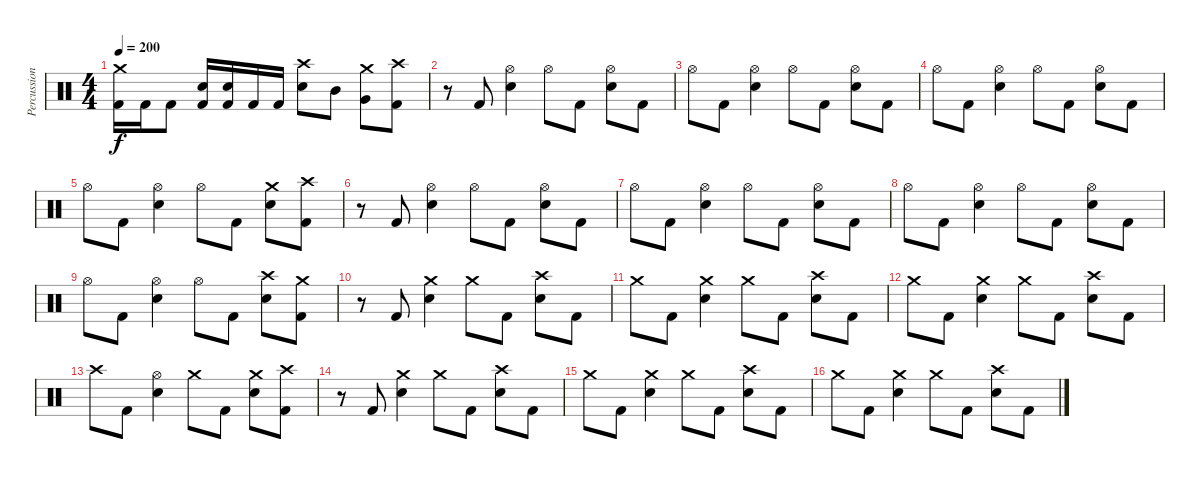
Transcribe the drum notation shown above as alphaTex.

\track ("Percussion" "Percussion") {instrument percussion}
\staff {score}
\articulation defaults
\ts (4 4)
\tempo 200
\clef neutral
\ks c
("Crash medium (hit)" "Kick (hit) 2").16{dy f} "Kick (hit) 2".16 "Kick (hit) 2".8 ("Snare (hit) 2" "Kick (hit) 2").16 ("Snare (hit) 2" "Kick (hit) 2").16 "Kick (hit) 2".16 "Kick (hit) 2".16 ("Crash high (hit)" "Snare (hit) 2").8 "Mid Tom (hit)".8 ("Crash medium (hit)" "Very Low Tom (hit)").8 ("Crash high (hit)" "Kick (hit) 2").8 |
r.8 "Kick (hit) 2".8 ("Hi-Hat (open)" "Snare (hit) 2").4 "Hi-Hat (open)".8 "Kick (hit) 2".8 ("Hi-Hat (open)" "Snare (hit) 2").8 "Kick (hit) 2".8 |
"Hi-Hat (open)".8 "Kick (hit) 2".8 ("Hi-Hat (open)" "Snare (hit) 2").4 "Hi-Hat (open)".8 "Kick (hit) 2".8 ("Hi-Hat (open)" "Snare (hit) 2").8 "Kick (hit) 2".8 |
"Hi-Hat (open)".8 "Kick (hit) 2".8 ("Hi-Hat (open)" "Snare (hit) 2").4 "Hi-Hat (open)".8 "Kick (hit) 2".8 ("Hi-Hat (open)" "Snare (hit) 2").8 "Kick (hit) 2".8 |
"Hi-Hat (open)".8 "Kick (hit) 2".8 ("Hi-Hat (open)" "Snare (hit) 2").4 "Hi-Hat (open)".8 "Kick (hit) 2".8 ("Crash medium (hit)" "Snare (hit) 2").8 ("Crash high (hit)" "Kick (hit) 2").8 |
r.8 "Kick (hit) 2".8 ("Hi-Hat (open)" "Snare (hit) 2").4 "Hi-Hat (open)".8 "Kick (hit) 2".8 ("Hi-Hat (open)" "Snare (hit) 2").8 "Kick (hit) 2".8 |
"Hi-Hat (open)".8 "Kick (hit) 2".8 ("Hi-Hat (open)" "Snare (hit) 2").4 "Hi-Hat (open)".8 "Kick (hit) 2".8 ("Hi-Hat (open)" "Snare (hit) 2").8 "Kick (hit) 2".8 |
"Hi-Hat (open)".8 "Kick (hit) 2".8 ("Hi-Hat (open)" "Snare (hit) 2").4 "Hi-Hat (open)".8 "Kick (hit) 2".8 ("Hi-Hat (open)" "Snare (hit) 2").8 "Kick (hit) 2".8 |
"Hi-Hat (open)".8 "Kick (hit) 2".8 ("Hi-Hat (open)" "Snare (hit) 2").4 "Hi-Hat (open)".8 "Kick (hit) 2".8 ("Crash high (hit)" "Snare (hit) 2").8 ("Crash medium (hit)" "Kick (hit) 2").8 |
r.8 "Kick (hit) 2".8 ("Crash medium (hit)" "Snare (hit) 2").4 "Crash medium (hit)".8 "Kick (hit) 2".8 ("Crash high (hit)" "Snare (hit) 2").8 "Kick (hit) 2".8 |
"Crash medium (hit)".8 "Kick (hit) 2".8 ("Crash medium (hit)" "Snare (hit) 2").4 "Crash medium (hit)".8 "Kick (hit) 2".8 ("Crash high (hit)" "Snare (hit) 2").8 "Kick (hit) 2".8 |
"Crash medium (hit)".8 "Kick (hit) 2".8 ("Crash medium (hit)" "Snare (hit) 2").4 "Crash medium (hit)".8 "Kick (hit) 2".8 ("Crash high (hit)" "Snare (hit) 2").8 "Kick (hit) 2".8 |
"Crash high (hit)".8 "Kick (hit) 2".8 ("Hi-Hat (open)" "Snare (hit) 2").4 "Crash medium (hit)".8 "Kick (hit) 2".8 ("Crash medium (hit)" "Snare (hit) 2").8 ("Crash high (hit)" "Kick (hit) 2").8 |
r.8 "Kick (hit) 2".8 ("Crash medium (hit)" "Snare (hit) 2").4 "Crash medium (hit)".8 "Kick (hit) 2".8 ("Crash high (hit)" "Snare (hit) 2").8 "Kick (hit) 2".8 |
"Crash medium (hit)".8 "Kick (hit) 2".8 ("Crash medium (hit)" "Snare (hit) 2").4 "Crash medium (hit)".8 "Kick (hit) 2".8 ("Crash high (hit)" "Snare (hit) 2").8 "Kick (hit) 2".8 |
"Crash medium (hit)".8 "Kick (hit) 2".8 ("Crash medium (hit)" "Snare (hit) 2").4 "Crash medium (hit)".8 "Kick (hit) 2".8 ("Crash high (hit)" "Snare (hit) 2").8 "Kick (hit) 2".8
